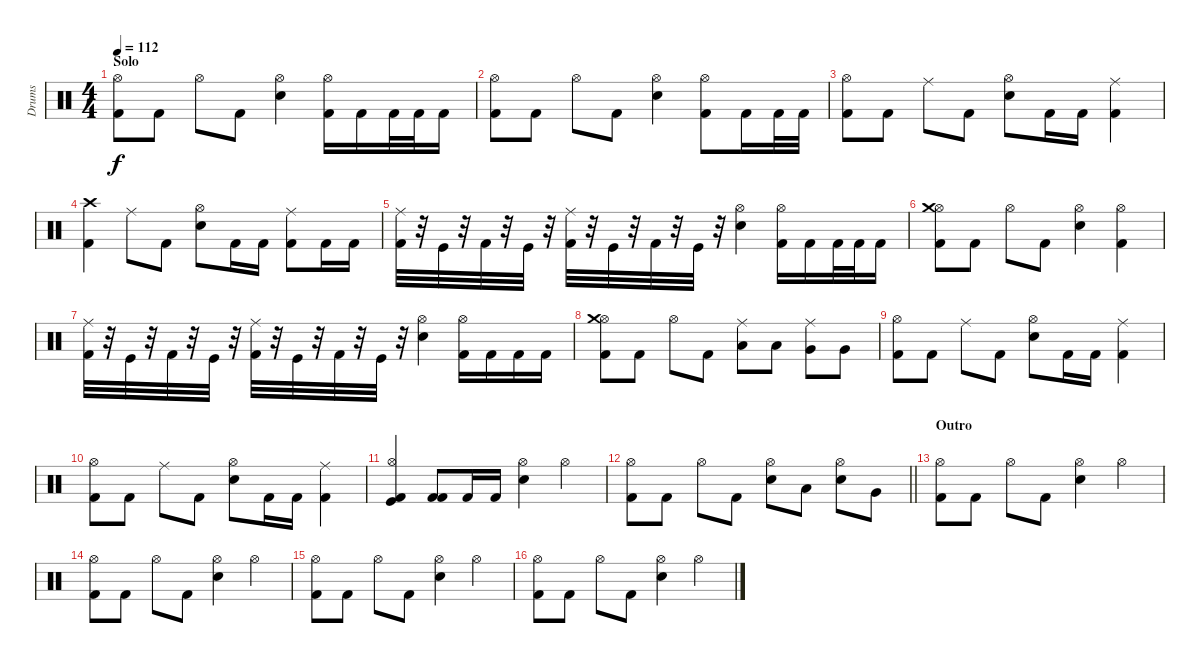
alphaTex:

\track ("Drums" "Drums") {instrument percussion}
\staff {score}
\articulation defaults
\ts (4 4)
\section ("" "Solo")
\tempo 112
\clef neutral
\ks c
("Kick (hit) 2" "Hi-Hat (open)").8{dy f} "Kick (hit) 2".8 "Hi-Hat (open)".8 "Kick (hit) 2".8 ("Electric Snare (hit)" "Hi-Hat (open)").4 ("Kick (hit) 2" "Hi-Hat (open)").16 "Kick (hit) 2".16 "Kick (hit) 2".32 "Kick (hit) 2".32 "Kick (hit) 2".16 |
("Kick (hit) 2" "Hi-Hat (open)").8 "Kick (hit) 2".8 "Hi-Hat (open)".8 "Kick (hit) 2".8 ("Electric Snare (hit)" "Hi-Hat (open)").4 ("Kick (hit) 2" "Hi-Hat (open)").8 "Kick (hit) 2".16 "Kick (hit) 2".32 "Kick (hit) 2".32 |
("Kick (hit) 2" "Hi-Hat (open)").8 "Kick (hit) 2".8 "Ride (middle)".8 "Kick (hit) 2".8 ("Electric Snare (hit)" "Hi-Hat (open)").8 "Kick (hit) 2".16 "Kick (hit) 2".16 ("Kick (hit) 2" "Ride (middle)").4 |
("Crash high (hit)" "Kick (hit) 2").4 "Ride (middle)".8 "Kick (hit) 2".8 ("Snare (hit) 2" "Hi-Hat (open)").8 "Kick (hit) 2".16 "Kick (hit) 2".16 ("Kick (hit) 2" "Ride (middle)").8 "Kick (hit) 2".16 "Kick (hit) 2".16 |
("Kick (hit) 2" "Ride (middle)").32 r.32 "Kick (hit)".32 r.32 "Kick (hit) 2".32 r.32 "Kick (hit)".32 r.32 ("Kick (hit) 2" "Ride (middle)").32 r.32 "Kick (hit)".32 r.32 "Kick (hit) 2".32 r.32 "Kick (hit)".32 r.32 ("Electric Snare (hit)" "Hi-Hat (open)").4 ("Kick (hit) 2" "Hi-Hat (open)").16 "Kick (hit) 2".16 "Kick (hit) 2".32 "Kick (hit) 2".32 "Kick (hit) 2".16 |
("Kick (hit) 2" "Hi-Hat (open)" "Crash medium (hit)").8 "Kick (hit) 2".8 "Hi-Hat (open)".8 "Kick (hit) 2".8 ("Electric Snare (hit)" "Hi-Hat (open)").4 ("Kick (hit) 2" "Hi-Hat (open)").4 |
("Kick (hit) 2" "Ride (middle)").32 r.32 "Kick (hit)".32 r.32 "Kick (hit) 2".32 r.32 "Kick (hit)".32 r.32 ("Kick (hit) 2" "Ride (middle)").32 r.32 "Kick (hit)".32 r.32 "Kick (hit) 2".32 r.32 "Kick (hit)".32 r.32 ("Electric Snare (hit)" "Hi-Hat (open)").4 ("Kick (hit) 2" "Hi-Hat (open)").16 "Kick (hit) 2".16 "Kick (hit) 2".16 "Kick (hit) 2".16 |
("Kick (hit) 2" "Hi-Hat (open)" "Crash medium (hit)").8 "Kick (hit) 2".8 "Hi-Hat (open)".8 "Kick (hit) 2".8 ("Low Tom (hit)" "Ride (middle)").8 "Low Tom (hit)".8 ("Very Low Tom (hit)" "Ride (middle)").8 "Very Low Tom (hit)".8 |
("Kick (hit) 2" "Hi-Hat (open)").8 "Kick (hit) 2".8 "Ride (middle)".8 "Kick (hit) 2".8 ("Electric Snare (hit)" "Hi-Hat (open)").8 "Kick (hit) 2".16 "Kick (hit) 2".16 ("Kick (hit) 2" "Ride (middle)").4 |
("Kick (hit) 2" "Hi-Hat (open)").8 "Kick (hit) 2".8 "Ride (middle)".8 "Kick (hit) 2".8 ("Electric Snare (hit)" "Hi-Hat (open)").8 "Kick (hit) 2".16 "Kick (hit) 2".16 ("Kick (hit) 2" "Ride (middle)").4 |
("Hi-Hat (open)" "Kick (hit) 2" "Kick (hit)").4 ("Kick (hit) 2" "Kick (hit) 2").8 "Kick (hit) 2".16 "Kick (hit) 2".16 ("Hi-Hat (open)" "Snare (hit) 2").4 "Hi-Hat (open)".4 |
\barLineRight lightlight
("Kick (hit) 2" "Hi-Hat (open)").8 "Kick (hit) 2".8 "Hi-Hat (open)".8 "Kick (hit) 2".8 ("Snare (hit) 2" "Hi-Hat (open)").8 "Low Tom (hit)".8 ("Snare (hit) 2" "Hi-Hat (open)").8 "Very Low Tom (hit)".8 |
\section ("" "Outro")
("Kick (hit) 2" "Hi-Hat (open)").8 "Kick (hit) 2".8 "Hi-Hat (open)".8 "Kick (hit) 2".8 ("Electric Snare (hit)" "Hi-Hat (open)").4 "Hi-Hat (open)".4 |
("Kick (hit) 2" "Hi-Hat (open)").8 "Kick (hit) 2".8 "Hi-Hat (open)".8 "Kick (hit) 2".8 ("Electric Snare (hit)" "Hi-Hat (open)").4 "Hi-Hat (open)".4 |
("Kick (hit) 2" "Hi-Hat (open)").8 "Kick (hit) 2".8 "Hi-Hat (open)".8 "Kick (hit) 2".8 ("Electric Snare (hit)" "Hi-Hat (open)").4 "Hi-Hat (open)".4 |
("Kick (hit) 2" "Hi-Hat (open)").8 "Kick (hit) 2".8 "Hi-Hat (open)".8 "Kick (hit) 2".8 ("Electric Snare (hit)" "Hi-Hat (open)").4 "Hi-Hat (open)".4
